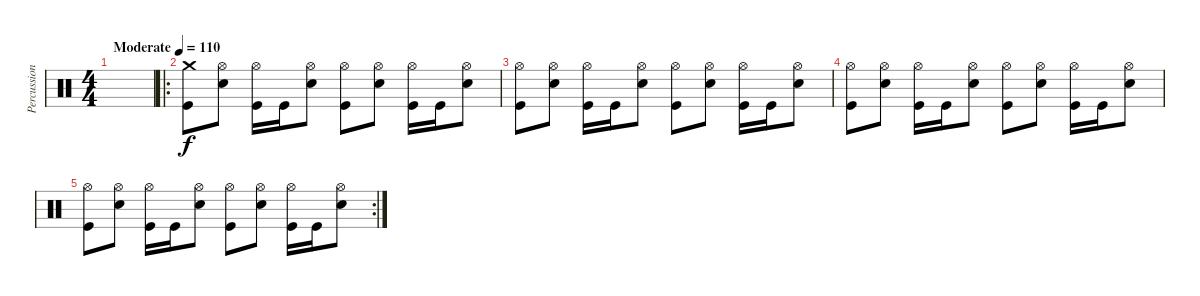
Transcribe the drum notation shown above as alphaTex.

\track ("Percussion" "Percussion") {instrument percussion}
\staff {score}
\articulation defaults
\ts (4 4)
\tempo (110 "Moderate")
\clef neutral
\ks c
|
\ro
("Crash medium (hit)" "Kick (hit)").8 ("Hi-Hat (open)" "Snare (hit) 2").8 ("Hi-Hat (open)" "Kick (hit)").16 "Kick (hit)".16 ("Hi-Hat (open)" "Snare (hit) 2").8 ("Hi-Hat (open)" "Kick (hit)").8 ("Hi-Hat (open)" "Snare (hit) 2").8 ("Hi-Hat (open)" "Kick (hit)").16 "Kick (hit)".16 ("Hi-Hat (open)" "Snare (hit) 2").8 |
("Hi-Hat (open)" "Kick (hit)").8 ("Hi-Hat (open)" "Snare (hit) 2").8 ("Hi-Hat (open)" "Kick (hit)").16 "Kick (hit)".16 ("Hi-Hat (open)" "Snare (hit) 2").8 ("Hi-Hat (open)" "Kick (hit)").8 ("Hi-Hat (open)" "Snare (hit) 2").8 ("Hi-Hat (open)" "Kick (hit)").16 "Kick (hit)".16 ("Hi-Hat (open)" "Snare (hit) 2").8 |
("Hi-Hat (open)" "Kick (hit)").8 ("Hi-Hat (open)" "Snare (hit) 2").8 ("Hi-Hat (open)" "Kick (hit)").16 "Kick (hit)".16 ("Hi-Hat (open)" "Snare (hit) 2").8 ("Hi-Hat (open)" "Kick (hit)").8 ("Hi-Hat (open)" "Snare (hit) 2").8 ("Hi-Hat (open)" "Kick (hit)").16 "Kick (hit)".16 ("Hi-Hat (open)" "Snare (hit) 2").8 |
\rc 2
("Hi-Hat (open)" "Kick (hit)").8 ("Hi-Hat (open)" "Snare (hit) 2").8 ("Hi-Hat (open)" "Kick (hit)").16 "Kick (hit)".16 ("Hi-Hat (open)" "Snare (hit) 2").8 ("Hi-Hat (open)" "Kick (hit)").8 ("Hi-Hat (open)" "Snare (hit) 2").8 ("Hi-Hat (open)" "Kick (hit)").16 "Kick (hit)".16 ("Hi-Hat (open)" "Snare (hit) 2").8
